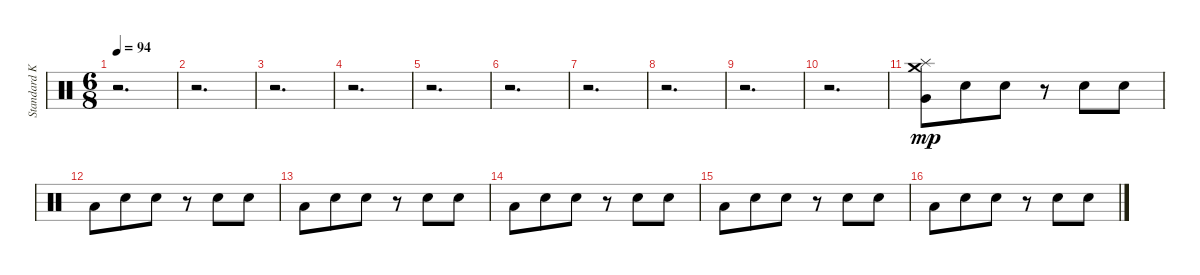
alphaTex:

\track ("Standard Kit" "Standard K") {instrument percussion}
\staff {score}
\articulation defaults
\ts (6 8)
\tempo 94
\clef neutral
\ks c
r.2{d dy mp} |
r.2{d} |
r.2{d} |
r.2{d} |
r.2{d} |
r.2{d} |
r.2{d} |
r.2{d} |
r.2{d} |
r.2{d} |
("Very Low Tom (hit)" "Splash (hit)" "Crash medium (hit)").8 "Electric Snare (hit)".8 "Electric Snare (hit)".8 r.8 "Electric Snare (hit)".8 "Electric Snare (hit)".8 |
"Low Floor Tom (hit)".8 "Electric Snare (hit)".8 "Electric Snare (hit)".8 r.8 "Electric Snare (hit)".8 "Electric Snare (hit)".8 |
"Low Floor Tom (hit)".8 "Electric Snare (hit)".8 "Electric Snare (hit)".8 r.8 "Electric Snare (hit)".8 "Electric Snare (hit)".8 |
"Low Floor Tom (hit)".8 "Electric Snare (hit)".8 "Electric Snare (hit)".8 r.8 "Electric Snare (hit)".8 "Electric Snare (hit)".8 |
"Low Floor Tom (hit)".8 "Electric Snare (hit)".8 "Electric Snare (hit)".8 r.8 "Electric Snare (hit)".8 "Electric Snare (hit)".8 |
"Low Floor Tom (hit)".8 "Electric Snare (hit)".8 "Electric Snare (hit)".8 r.8 "Electric Snare (hit)".8 "Electric Snare (hit)".8
